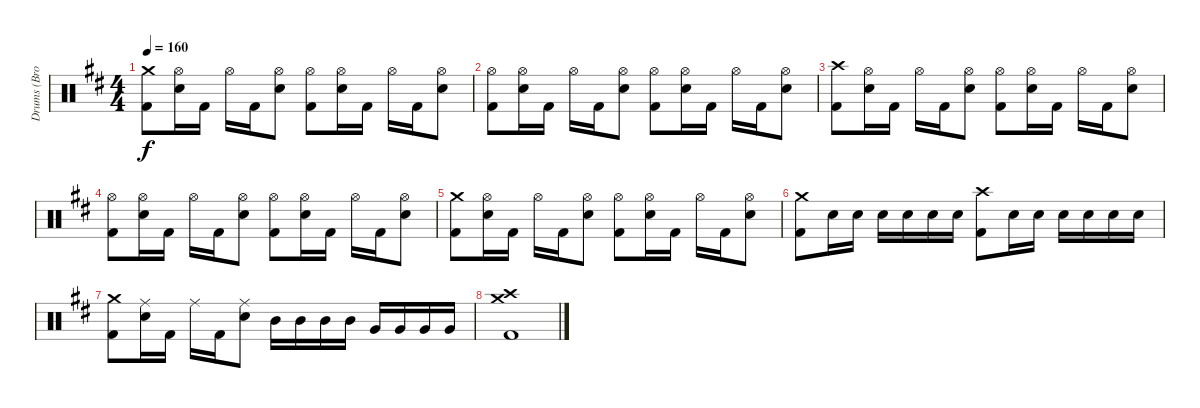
\track ("Drums (Brooks Wackerman)" "Drums (Bro") {instrument percussion}
\staff {score}
\articulation defaults
\ts (4 4)
\tempo 160
\clef neutral
\ks d
("Crash medium (hit)" "Kick (hit) 2").8{dy f} ("Hi-Hat (open)" "Snare (hit) 2").16 "Kick (hit) 2".16 "Hi-Hat (open)".16 "Kick (hit) 2".16 ("Hi-Hat (open)" "Snare (hit) 2").8 ("Hi-Hat (open)" "Kick (hit) 2").8 ("Hi-Hat (open)" "Snare (hit) 2").16 "Kick (hit) 2".16 "Hi-Hat (open)".16 "Kick (hit) 2".16 ("Hi-Hat (open)" "Snare (hit) 2").8 |
("Hi-Hat (open)" "Kick (hit) 2").8 ("Hi-Hat (open)" "Snare (hit) 2").16 "Kick (hit) 2".16 "Hi-Hat (open)".16 "Kick (hit) 2".16 ("Hi-Hat (open)" "Snare (hit) 2").8 ("Hi-Hat (open)" "Kick (hit) 2").8 ("Hi-Hat (open)" "Snare (hit) 2").16 "Kick (hit) 2".16 "Hi-Hat (open)".16 "Kick (hit) 2".16 ("Hi-Hat (open)" "Snare (hit) 2").8 |
("Crash high (hit)" "Kick (hit) 2").8 ("Hi-Hat (open)" "Snare (hit) 2").16 "Kick (hit) 2".16 "Hi-Hat (open)".16 "Kick (hit) 2".16 ("Hi-Hat (open)" "Snare (hit) 2").8 ("Hi-Hat (open)" "Kick (hit) 2").8 ("Hi-Hat (open)" "Snare (hit) 2").16 "Kick (hit) 2".16 "Hi-Hat (open)".16 "Kick (hit) 2".16 ("Hi-Hat (open)" "Snare (hit) 2").8 |
("Hi-Hat (open)" "Kick (hit) 2").8 ("Hi-Hat (open)" "Snare (hit) 2").16 "Kick (hit) 2".16 "Hi-Hat (open)".16 "Kick (hit) 2".16 ("Hi-Hat (open)" "Snare (hit) 2").8 ("Hi-Hat (open)" "Kick (hit) 2").8 ("Hi-Hat (open)" "Snare (hit) 2").16 "Kick (hit) 2".16 "Hi-Hat (open)".16 "Kick (hit) 2".16 ("Hi-Hat (open)" "Snare (hit) 2").8 |
("Crash medium (hit)" "Kick (hit) 2").8 ("Hi-Hat (open)" "Snare (hit) 2").16 "Kick (hit) 2".16 "Hi-Hat (open)".16 "Kick (hit) 2".16 ("Hi-Hat (open)" "Snare (hit) 2").8 ("Hi-Hat (open)" "Kick (hit) 2").8 ("Hi-Hat (open)" "Snare (hit) 2").16 "Kick (hit) 2".16 "Hi-Hat (open)".16 "Kick (hit) 2".16 ("Hi-Hat (open)" "Snare (hit) 2").8 |
("Crash medium (hit)" "Kick (hit) 2").8 "Snare (hit) 2".16 "Snare (hit) 2".16 "Snare (hit) 2".16 "Snare (hit) 2".16 "Snare (hit) 2".16 "Snare (hit) 2".16 ("Crash high (hit)" "Kick (hit) 2").8 "Snare (hit) 2".16 "Snare (hit) 2".16 "Snare (hit) 2".16 "Snare (hit) 2".16 "Snare (hit) 2".16 "Snare (hit) 2".16 |
("Crash medium (hit)" "Kick (hit) 2").8 ("Ride (middle)" "Snare (hit) 2").16 "Kick (hit) 2".16 "Ride (middle)".16 "Kick (hit) 2".16 ("Ride (middle)" "Snare (hit) 2").8 "Mid Tom (hit)".16 "Mid Tom (hit)".16 "Mid Tom (hit)".16 "Mid Tom (hit)".16 "Very Low Tom (hit)".16 "Very Low Tom (hit)".16 "Very Low Tom (hit)".16 "Very Low Tom (hit)".16 |
("Crash high (hit)" "Crash medium (hit)" "Kick (hit) 2").1
